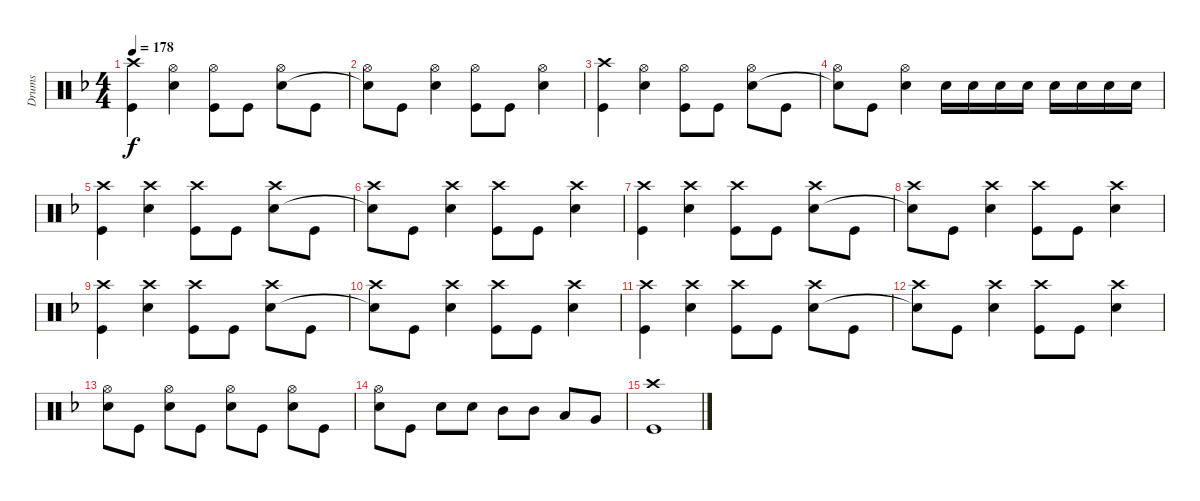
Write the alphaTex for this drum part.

\track ("Drums" "Drums") {instrument percussion}
\staff {score}
\articulation defaults
\ts (4 4)
\tempo 178
\clef neutral
\ks f
("Crash high (hit)" "Kick (hit)").4{dy f} ("Hi-Hat (open)" "Electric Snare (hit)").4 ("Hi-Hat (open)" "Kick (hit)").8 "Kick (hit)".8 ("Hi-Hat (open)" "Electric Snare (hit)").8 "Kick (hit)".8 |
("Hi-Hat (open)" "Snare (hit)"{t}).8 "Kick (hit)".8 ("Hi-Hat (open)" "Electric Snare (hit)").4 ("Hi-Hat (open)" "Kick (hit)").8 "Kick (hit)".8 ("Hi-Hat (open)" "Electric Snare (hit)").4 |
("Crash high (hit)" "Kick (hit)").4 ("Hi-Hat (open)" "Electric Snare (hit)").4 ("Hi-Hat (open)" "Kick (hit)").8 "Kick (hit)".8 ("Hi-Hat (open)" "Electric Snare (hit)").8 "Kick (hit)".8 |
("Hi-Hat (open)" "Snare (hit)"{t}).8 "Kick (hit)".8 ("Hi-Hat (open)" "Electric Snare (hit)").4 "Electric Snare (hit)".16 "Electric Snare (hit)".16 "Electric Snare (hit)".16 "Electric Snare (hit)".16 "Electric Snare (hit)".16 "Electric Snare (hit)".16 "Electric Snare (hit)".16 "Electric Snare (hit)".16 |
("Crash high (hit)" "Kick (hit)").4 ("Crash high (hit)" "Electric Snare (hit)").4 ("Crash high (hit)" "Kick (hit)").8 "Kick (hit)".8 ("Crash high (hit)" "Electric Snare (hit)").8 "Kick (hit)".8 |
("Crash high (hit)" "Snare (hit)"{t}).8 "Kick (hit)".8 ("Crash high (hit)" "Electric Snare (hit)").4 ("Crash high (hit)" "Kick (hit)").8 "Kick (hit)".8 ("Crash high (hit)" "Electric Snare (hit)").4 |
("Crash high (hit)" "Kick (hit)").4 ("Crash high (hit)" "Electric Snare (hit)").4 ("Crash high (hit)" "Kick (hit)").8 "Kick (hit)".8 ("Crash high (hit)" "Electric Snare (hit)").8 "Kick (hit)".8 |
("Crash high (hit)" "Snare (hit)"{t}).8 "Kick (hit)".8 ("Crash high (hit)" "Electric Snare (hit)").4 ("Crash high (hit)" "Kick (hit)").8 "Kick (hit)".8 ("Crash high (hit)" "Electric Snare (hit)").4 |
("Crash high (hit)" "Kick (hit)").4 ("Crash high (hit)" "Electric Snare (hit)").4 ("Crash high (hit)" "Kick (hit)").8 "Kick (hit)".8 ("Crash high (hit)" "Electric Snare (hit)").8 "Kick (hit)".8 |
("Crash high (hit)" "Snare (hit)"{t}).8 "Kick (hit)".8 ("Crash high (hit)" "Electric Snare (hit)").4 ("Crash high (hit)" "Kick (hit)").8 "Kick (hit)".8 ("Crash high (hit)" "Electric Snare (hit)").4 |
("Crash high (hit)" "Kick (hit)").4 ("Crash high (hit)" "Electric Snare (hit)").4 ("Crash high (hit)" "Kick (hit)").8 "Kick (hit)".8 ("Crash high (hit)" "Electric Snare (hit)").8 "Kick (hit)".8 |
("Crash high (hit)" "Snare (hit)"{t}).8 "Kick (hit)".8 ("Crash high (hit)" "Electric Snare (hit)").4 ("Crash high (hit)" "Kick (hit)").8 "Kick (hit)".8 ("Crash high (hit)" "Electric Snare (hit)").4 |
("Hi-Hat (open)" "Electric Snare (hit)").8 "Kick (hit)".8 ("Hi-Hat (open)" "Electric Snare (hit)").8 "Kick (hit)".8 ("Hi-Hat (open)" "Electric Snare (hit)").8 "Kick (hit)".8 ("Hi-Hat (open)" "Electric Snare (hit)").8 "Kick (hit)".8 |
("Hi-Hat (open)" "Electric Snare (hit)").8 "Kick (hit)".8 "Electric Snare (hit)".8 "Electric Snare (hit)".8 "Mid Tom (hit)".8 "Mid Tom (hit)".8 "Low Tom (hit)".8 "Very Low Tom (hit)".8 |
("Crash high (hit)" "Kick (hit)").1
